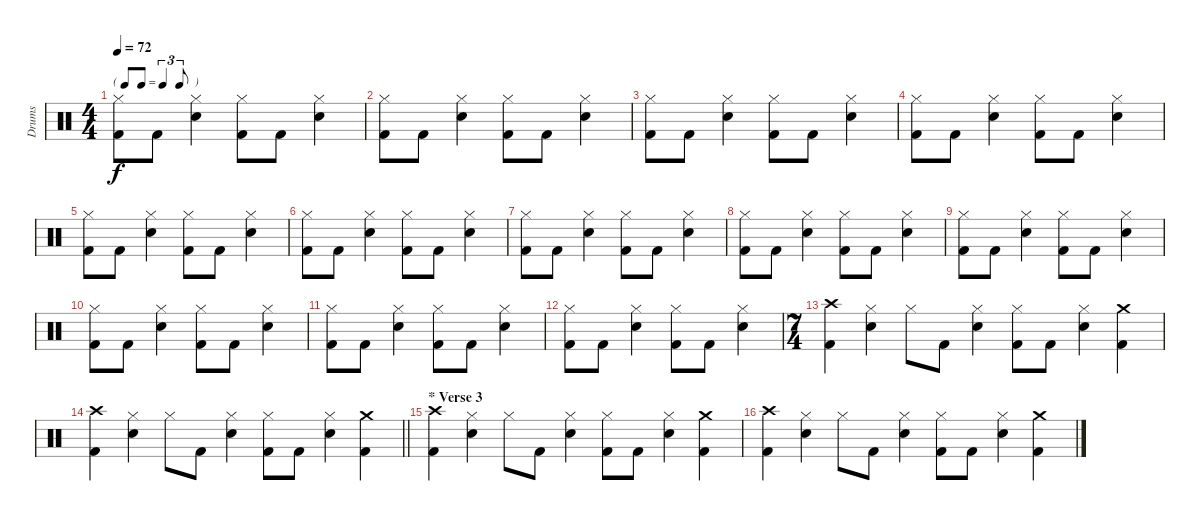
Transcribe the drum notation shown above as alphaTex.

\track ("Drums" "Drums") {instrument percussion}
\staff {score}
\articulation defaults
\ts (4 4)
\tf triplet8th
\tempo 72
\clef neutral
\ks c
("Hi-Hat (closed)" "Kick (hit) 2").8{dy f} "Kick (hit) 2".8 ("Hi-Hat (closed)" "Electric Snare (hit)").4 ("Hi-Hat (closed)" "Kick (hit) 2").8 "Kick (hit) 2".8 ("Hi-Hat (closed)" "Electric Snare (hit)").4 |
("Hi-Hat (closed)" "Kick (hit) 2").8 "Kick (hit) 2".8 ("Hi-Hat (closed)" "Electric Snare (hit)").4 ("Hi-Hat (closed)" "Kick (hit) 2").8 "Kick (hit) 2".8 ("Hi-Hat (closed)" "Electric Snare (hit)").4 |
("Hi-Hat (closed)" "Kick (hit) 2").8 "Kick (hit) 2".8 ("Hi-Hat (closed)" "Electric Snare (hit)").4 ("Hi-Hat (closed)" "Kick (hit) 2").8 "Kick (hit) 2".8 ("Hi-Hat (closed)" "Electric Snare (hit)").4 |
("Hi-Hat (closed)" "Kick (hit) 2").8 "Kick (hit) 2".8 ("Hi-Hat (closed)" "Electric Snare (hit)").4 ("Hi-Hat (closed)" "Kick (hit) 2").8 "Kick (hit) 2".8 ("Hi-Hat (closed)" "Electric Snare (hit)").4 |
("Hi-Hat (closed)" "Kick (hit) 2").8 "Kick (hit) 2".8 ("Hi-Hat (closed)" "Electric Snare (hit)").4 ("Hi-Hat (closed)" "Kick (hit) 2").8 "Kick (hit) 2".8 ("Hi-Hat (closed)" "Electric Snare (hit)").4 |
("Hi-Hat (closed)" "Kick (hit) 2").8 "Kick (hit) 2".8 ("Hi-Hat (closed)" "Electric Snare (hit)").4 ("Hi-Hat (closed)" "Kick (hit) 2").8 "Kick (hit) 2".8 ("Hi-Hat (closed)" "Electric Snare (hit)").4 |
("Hi-Hat (closed)" "Kick (hit) 2").8 "Kick (hit) 2".8 ("Hi-Hat (closed)" "Electric Snare (hit)").4 ("Hi-Hat (closed)" "Kick (hit) 2").8 "Kick (hit) 2".8 ("Hi-Hat (closed)" "Electric Snare (hit)").4 |
("Hi-Hat (closed)" "Kick (hit) 2").8 "Kick (hit) 2".8 ("Hi-Hat (closed)" "Electric Snare (hit)").4 ("Hi-Hat (closed)" "Kick (hit) 2").8 "Kick (hit) 2".8 ("Hi-Hat (closed)" "Electric Snare (hit)").4 |
("Hi-Hat (closed)" "Kick (hit) 2").8 "Kick (hit) 2".8 ("Hi-Hat (closed)" "Electric Snare (hit)").4 ("Hi-Hat (closed)" "Kick (hit) 2").8 "Kick (hit) 2".8 ("Hi-Hat (closed)" "Electric Snare (hit)").4 |
("Hi-Hat (closed)" "Kick (hit) 2").8 "Kick (hit) 2".8 ("Hi-Hat (closed)" "Electric Snare (hit)").4 ("Hi-Hat (closed)" "Kick (hit) 2").8 "Kick (hit) 2".8 ("Hi-Hat (closed)" "Electric Snare (hit)").4 |
("Hi-Hat (closed)" "Kick (hit) 2").8 "Kick (hit) 2".8 ("Hi-Hat (closed)" "Electric Snare (hit)").4 ("Hi-Hat (closed)" "Kick (hit) 2").8 "Kick (hit) 2".8 ("Hi-Hat (closed)" "Electric Snare (hit)").4 |
("Hi-Hat (closed)" "Kick (hit) 2").8 "Kick (hit) 2".8 ("Hi-Hat (closed)" "Electric Snare (hit)").4 ("Hi-Hat (closed)" "Kick (hit) 2").8 "Kick (hit) 2".8 ("Hi-Hat (closed)" "Electric Snare (hit)").4 |
\ts (7 4)
("Crash high (hit)" "Kick (hit) 2").4 ("Hi-Hat (closed)" "Electric Snare (hit)").4 "Hi-Hat (closed)".8 "Kick (hit) 2".8 ("Hi-Hat (closed)" "Electric Snare (hit)").4 ("Hi-Hat (closed)" "Kick (hit) 2").8 "Kick (hit) 2".8 ("Hi-Hat (closed)" "Electric Snare (hit)").4 ("Crash medium (hit)" "Kick (hit) 2").4 |
\barLineRight lightlight
("Crash high (hit)" "Kick (hit) 2").4 ("Hi-Hat (closed)" "Electric Snare (hit)").4 "Hi-Hat (closed)".8 "Kick (hit) 2".8 ("Hi-Hat (closed)" "Electric Snare (hit)").4 ("Hi-Hat (closed)" "Kick (hit) 2").8 "Kick (hit) 2".8 ("Hi-Hat (closed)" "Electric Snare (hit)").4 ("Crash medium (hit)" "Kick (hit) 2").4 |
\section ("" "* Verse 3")
("Crash high (hit)" "Kick (hit) 2").4 ("Hi-Hat (closed)" "Electric Snare (hit)").4 "Hi-Hat (closed)".8 "Kick (hit) 2".8 ("Hi-Hat (closed)" "Electric Snare (hit)").4 ("Hi-Hat (closed)" "Kick (hit) 2").8 "Kick (hit) 2".8 ("Hi-Hat (closed)" "Electric Snare (hit)").4 ("Crash medium (hit)" "Kick (hit) 2").4 |
("Crash high (hit)" "Kick (hit) 2").4 ("Hi-Hat (closed)" "Electric Snare (hit)").4 "Hi-Hat (closed)".8 "Kick (hit) 2".8 ("Hi-Hat (closed)" "Electric Snare (hit)").4 ("Hi-Hat (closed)" "Kick (hit) 2").8 "Kick (hit) 2".8 ("Hi-Hat (closed)" "Electric Snare (hit)").4 ("Crash medium (hit)" "Kick (hit) 2").4
